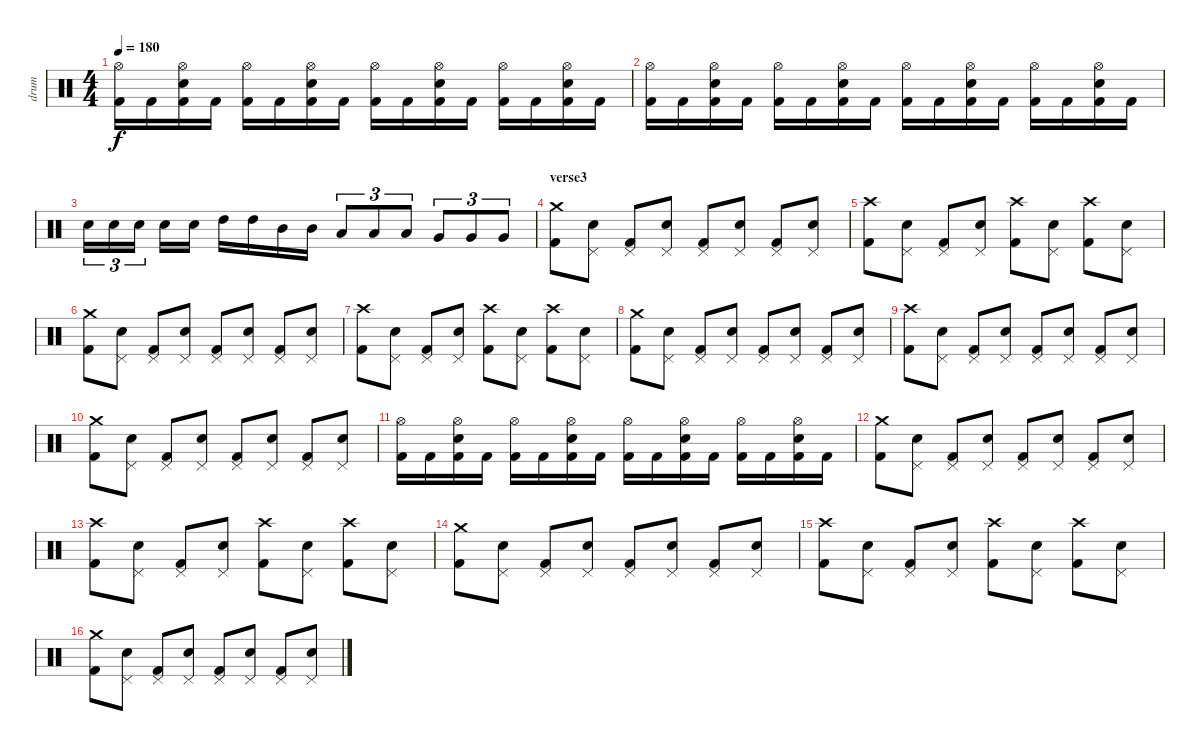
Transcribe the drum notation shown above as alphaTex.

\track ("drum" "drum") {instrument percussion}
\staff {score}
\articulation defaults
\ts (4 4)
\tempo 180
\clef neutral
\ks c
("Hi-Hat (open)" "Kick (hit) 2").16{dy f} "Kick (hit) 2".16 ("Hi-Hat (open)" "Electric Snare (hit)" "Kick (hit) 2").16 "Kick (hit) 2".16 ("Hi-Hat (open)" "Kick (hit) 2").16 "Kick (hit) 2".16 ("Hi-Hat (open)" "Electric Snare (hit)" "Kick (hit) 2").16 "Kick (hit) 2".16 ("Hi-Hat (open)" "Kick (hit) 2").16 "Kick (hit) 2".16 ("Hi-Hat (open)" "Electric Snare (hit)" "Kick (hit) 2").16 "Kick (hit) 2".16 ("Hi-Hat (open)" "Kick (hit) 2").16 "Kick (hit) 2".16 ("Hi-Hat (open)" "Electric Snare (hit)" "Kick (hit) 2").16 "Kick (hit) 2".16 |
("Hi-Hat (open)" "Kick (hit) 2").16 "Kick (hit) 2".16 ("Hi-Hat (open)" "Electric Snare (hit)" "Kick (hit) 2").16 "Kick (hit) 2".16 ("Hi-Hat (open)" "Kick (hit) 2").16 "Kick (hit) 2".16 ("Hi-Hat (open)" "Electric Snare (hit)" "Kick (hit) 2").16 "Kick (hit) 2".16 ("Hi-Hat (open)" "Kick (hit) 2").16 "Kick (hit) 2".16 ("Hi-Hat (open)" "Electric Snare (hit)" "Kick (hit) 2").16 "Kick (hit) 2".16 ("Hi-Hat (open)" "Kick (hit) 2").16 "Kick (hit) 2".16 ("Hi-Hat (open)" "Electric Snare (hit)" "Kick (hit) 2").16 "Kick (hit) 2".16 |
"Electric Snare (hit)".16{tu (3 2)} "Electric Snare (hit)".16{tu (3 2)} "Electric Snare (hit)".16{tu (3 2)} "Electric Snare (hit)".16 "Electric Snare (hit)".16 "High Tom (hit)".16 "High Tom (hit)".16 "Mid Tom (hit)".16 "Mid Tom (hit)".16 "Low Tom (hit)".8{tu (3 2)} "Low Tom (hit)".8{tu (3 2)} "Low Tom (hit)".8{tu (3 2)} "Very Low Tom (hit)".8{tu (3 2)} "Very Low Tom (hit)".8{tu (3 2)} "Very Low Tom (hit)".8{tu (3 2)} |
\section ("" "verse3")
("Crash medium (hit)" "Kick (hit) 2").8 ("Pedal Hi-Hat (hit)" "Electric Snare (hit)").8 ("Pedal Hi-Hat (hit)" "Kick (hit) 2").8 ("Pedal Hi-Hat (hit)" "Electric Snare (hit)").8 ("Pedal Hi-Hat (hit)" "Kick (hit) 2").8 ("Pedal Hi-Hat (hit)" "Electric Snare (hit)").8 ("Pedal Hi-Hat (hit)" "Kick (hit) 2").8 ("Pedal Hi-Hat (hit)" "Electric Snare (hit)").8 |
("Crash high (hit)" "Kick (hit) 2").8 ("Pedal Hi-Hat (hit)" "Electric Snare (hit)").8 ("Pedal Hi-Hat (hit)" "Kick (hit) 2").8 ("Pedal Hi-Hat (hit)" "Electric Snare (hit)").8 ("Crash high (hit)" "Kick (hit) 2").8 ("Pedal Hi-Hat (hit)" "Electric Snare (hit)").8 ("Crash high (hit)" "Kick (hit) 2").8 ("Pedal Hi-Hat (hit)" "Electric Snare (hit)").8 |
("Crash medium (hit)" "Kick (hit) 2").8 ("Pedal Hi-Hat (hit)" "Electric Snare (hit)").8 ("Pedal Hi-Hat (hit)" "Kick (hit) 2").8 ("Pedal Hi-Hat (hit)" "Electric Snare (hit)").8 ("Pedal Hi-Hat (hit)" "Kick (hit) 2").8 ("Pedal Hi-Hat (hit)" "Electric Snare (hit)").8 ("Pedal Hi-Hat (hit)" "Kick (hit) 2").8 ("Pedal Hi-Hat (hit)" "Electric Snare (hit)").8 |
("Crash high (hit)" "Kick (hit) 2").8 ("Pedal Hi-Hat (hit)" "Electric Snare (hit)").8 ("Pedal Hi-Hat (hit)" "Kick (hit) 2").8 ("Pedal Hi-Hat (hit)" "Electric Snare (hit)").8 ("Crash high (hit)" "Kick (hit) 2").8 ("Pedal Hi-Hat (hit)" "Electric Snare (hit)").8 ("Crash high (hit)" "Kick (hit) 2").8 ("Pedal Hi-Hat (hit)" "Electric Snare (hit)").8 |
("Crash medium (hit)" "Kick (hit) 2").8 ("Pedal Hi-Hat (hit)" "Electric Snare (hit)").8 ("Pedal Hi-Hat (hit)" "Kick (hit) 2").8 ("Pedal Hi-Hat (hit)" "Electric Snare (hit)").8 ("Pedal Hi-Hat (hit)" "Kick (hit) 2").8 ("Pedal Hi-Hat (hit)" "Electric Snare (hit)").8 ("Pedal Hi-Hat (hit)" "Kick (hit) 2").8 ("Pedal Hi-Hat (hit)" "Electric Snare (hit)").8 |
("Crash high (hit)" "Kick (hit) 2").8 ("Pedal Hi-Hat (hit)" "Electric Snare (hit)").8 ("Pedal Hi-Hat (hit)" "Kick (hit) 2").8 ("Pedal Hi-Hat (hit)" "Electric Snare (hit)").8 ("Pedal Hi-Hat (hit)" "Kick (hit) 2").8 ("Pedal Hi-Hat (hit)" "Electric Snare (hit)").8 ("Pedal Hi-Hat (hit)" "Kick (hit) 2").8 ("Pedal Hi-Hat (hit)" "Electric Snare (hit)").8 |
("Crash medium (hit)" "Kick (hit) 2").8 ("Pedal Hi-Hat (hit)" "Electric Snare (hit)").8 ("Pedal Hi-Hat (hit)" "Kick (hit) 2").8 ("Pedal Hi-Hat (hit)" "Electric Snare (hit)").8 ("Pedal Hi-Hat (hit)" "Kick (hit) 2").8 ("Pedal Hi-Hat (hit)" "Electric Snare (hit)").8 ("Pedal Hi-Hat (hit)" "Kick (hit) 2").8 ("Pedal Hi-Hat (hit)" "Electric Snare (hit)").8 |
("Hi-Hat (open)" "Kick (hit) 2").16 "Kick (hit) 2".16 ("Hi-Hat (open)" "Electric Snare (hit)" "Kick (hit) 2").16 "Kick (hit) 2".16 ("Hi-Hat (open)" "Kick (hit) 2").16 "Kick (hit) 2".16 ("Hi-Hat (open)" "Electric Snare (hit)" "Kick (hit) 2").16 "Kick (hit) 2".16 ("Hi-Hat (open)" "Kick (hit) 2").16 "Kick (hit) 2".16 ("Hi-Hat (open)" "Electric Snare (hit)" "Kick (hit) 2").16 "Kick (hit) 2".16 ("Hi-Hat (open)" "Kick (hit) 2").16 "Kick (hit) 2".16 ("Hi-Hat (open)" "Electric Snare (hit)" "Kick (hit) 2").16 "Kick (hit) 2".16 |
("Crash medium (hit)" "Kick (hit) 2").8 ("Pedal Hi-Hat (hit)" "Electric Snare (hit)").8 ("Pedal Hi-Hat (hit)" "Kick (hit) 2").8 ("Pedal Hi-Hat (hit)" "Electric Snare (hit)").8 ("Pedal Hi-Hat (hit)" "Kick (hit) 2").8 ("Pedal Hi-Hat (hit)" "Electric Snare (hit)").8 ("Pedal Hi-Hat (hit)" "Kick (hit) 2").8 ("Pedal Hi-Hat (hit)" "Electric Snare (hit)").8 |
("Crash high (hit)" "Kick (hit) 2").8 ("Pedal Hi-Hat (hit)" "Electric Snare (hit)").8 ("Pedal Hi-Hat (hit)" "Kick (hit) 2").8 ("Pedal Hi-Hat (hit)" "Electric Snare (hit)").8 ("Crash high (hit)" "Kick (hit) 2").8 ("Pedal Hi-Hat (hit)" "Electric Snare (hit)").8 ("Crash high (hit)" "Kick (hit) 2").8 ("Pedal Hi-Hat (hit)" "Electric Snare (hit)").8 |
("Crash medium (hit)" "Kick (hit) 2").8 ("Pedal Hi-Hat (hit)" "Electric Snare (hit)").8 ("Pedal Hi-Hat (hit)" "Kick (hit) 2").8 ("Pedal Hi-Hat (hit)" "Electric Snare (hit)").8 ("Pedal Hi-Hat (hit)" "Kick (hit) 2").8 ("Pedal Hi-Hat (hit)" "Electric Snare (hit)").8 ("Pedal Hi-Hat (hit)" "Kick (hit) 2").8 ("Pedal Hi-Hat (hit)" "Electric Snare (hit)").8 |
("Crash high (hit)" "Kick (hit) 2").8 ("Pedal Hi-Hat (hit)" "Electric Snare (hit)").8 ("Pedal Hi-Hat (hit)" "Kick (hit) 2").8 ("Pedal Hi-Hat (hit)" "Electric Snare (hit)").8 ("Crash high (hit)" "Kick (hit) 2").8 ("Pedal Hi-Hat (hit)" "Electric Snare (hit)").8 ("Crash high (hit)" "Kick (hit) 2").8 ("Pedal Hi-Hat (hit)" "Electric Snare (hit)").8 |
("Crash medium (hit)" "Kick (hit) 2").8 ("Pedal Hi-Hat (hit)" "Electric Snare (hit)").8 ("Pedal Hi-Hat (hit)" "Kick (hit) 2").8 ("Pedal Hi-Hat (hit)" "Electric Snare (hit)").8 ("Pedal Hi-Hat (hit)" "Kick (hit) 2").8 ("Pedal Hi-Hat (hit)" "Electric Snare (hit)").8 ("Pedal Hi-Hat (hit)" "Kick (hit) 2").8 ("Pedal Hi-Hat (hit)" "Electric Snare (hit)").8
